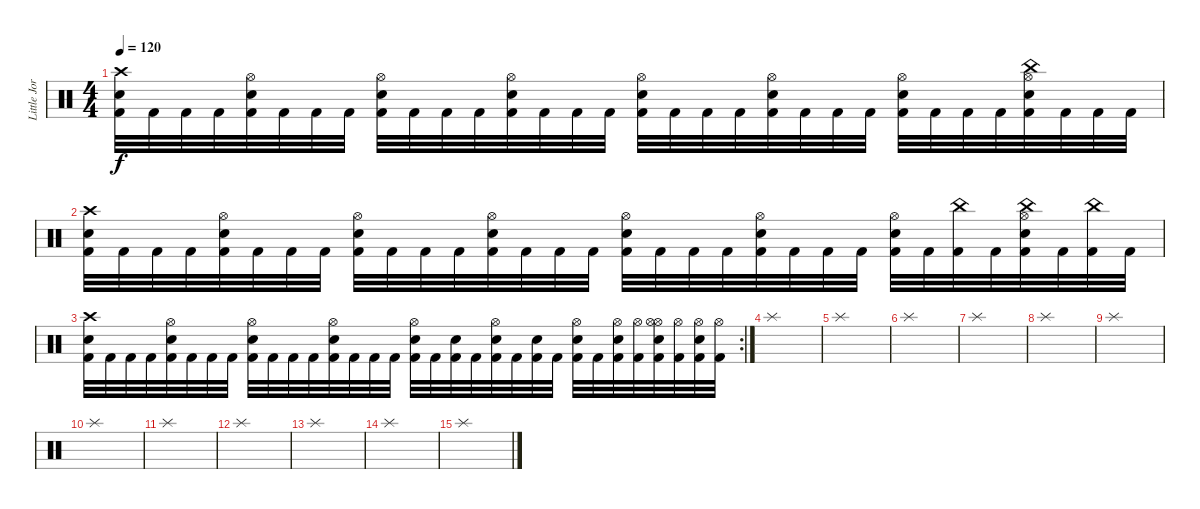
\track ("Little Jordison" "Little Jor") {instrument percussion}
\staff {score}
\articulation defaults
\ts (4 4)
\tempo 120
\clef neutral
\ks c
("Crash high (hit)" "Electric Snare (hit)" "Kick (hit) 2").32{dy f} "Kick (hit) 2".32 "Kick (hit) 2".32 "Kick (hit) 2".32 ("Hi-Hat (open)" "Electric Snare (hit)" "Kick (hit) 2").32 "Kick (hit) 2".32 "Kick (hit) 2".32 "Kick (hit) 2".32 ("Hi-Hat (open)" "Electric Snare (hit)" "Kick (hit) 2").32 "Kick (hit) 2".32 "Kick (hit) 2".32 "Kick (hit) 2".32 ("Hi-Hat (open)" "Electric Snare (hit)" "Kick (hit) 2").32 "Kick (hit) 2".32 "Kick (hit) 2".32 "Kick (hit) 2".32 ("Hi-Hat (open)" "Electric Snare (hit)" "Kick (hit) 2").32 "Kick (hit) 2".32 "Kick (hit) 2".32 "Kick (hit) 2".32 ("Hi-Hat (open)" "Electric Snare (hit)" "Kick (hit) 2").32 "Kick (hit) 2".32 "Kick (hit) 2".32 "Kick (hit) 2".32 ("Hi-Hat (open)" "Electric Snare (hit)" "Kick (hit) 2").32 "Kick (hit) 2".32 "Kick (hit) 2".32 "Kick (hit) 2".32 ("China (hit)" "Hi-Hat (open)" "Electric Snare (hit)" "Kick (hit) 2").32 "Kick (hit) 2".32 "Kick (hit) 2".32 "Kick (hit) 2".32 |
("Crash high (hit)" "Electric Snare (hit)" "Kick (hit) 2").32 "Kick (hit) 2".32 "Kick (hit) 2".32 "Kick (hit) 2".32 ("Hi-Hat (open)" "Electric Snare (hit)" "Kick (hit) 2").32 "Kick (hit) 2".32 "Kick (hit) 2".32 "Kick (hit) 2".32 ("Hi-Hat (open)" "Electric Snare (hit)" "Kick (hit) 2").32 "Kick (hit) 2".32 "Kick (hit) 2".32 "Kick (hit) 2".32 ("Hi-Hat (open)" "Electric Snare (hit)" "Kick (hit) 2").32 "Kick (hit) 2".32 "Kick (hit) 2".32 "Kick (hit) 2".32 ("Hi-Hat (open)" "Electric Snare (hit)" "Kick (hit) 2").32 "Kick (hit) 2".32 "Kick (hit) 2".32 "Kick (hit) 2".32 ("Hi-Hat (open)" "Electric Snare (hit)" "Kick (hit) 2").32 "Kick (hit) 2".32 "Kick (hit) 2".32 "Kick (hit) 2".32 ("Hi-Hat (open)" "Electric Snare (hit)" "Kick (hit) 2").32 "Kick (hit) 2".32 ("China (hit)" "Kick (hit) 2").32 "Kick (hit) 2".32 ("China (hit)" "Hi-Hat (open)" "Electric Snare (hit)" "Kick (hit) 2").32 "Kick (hit) 2".32 ("China (hit)" "Kick (hit) 2").32 "Kick (hit) 2".32 |
\rc 2
("Crash high (hit)" "Electric Snare (hit)" "Kick (hit) 2").32 "Kick (hit) 2".32 "Kick (hit) 2".32 "Kick (hit) 2".32 ("Hi-Hat (open)" "Electric Snare (hit)" "Kick (hit) 2").32 "Kick (hit) 2".32 "Kick (hit) 2".32 "Kick (hit) 2".32 ("Hi-Hat (open)" "Electric Snare (hit)" "Kick (hit) 2").32 "Kick (hit) 2".32 "Kick (hit) 2".32 "Kick (hit) 2".32 ("Hi-Hat (open)" "Electric Snare (hit)" "Kick (hit) 2").32 "Kick (hit) 2".32 "Kick (hit) 2".32 "Kick (hit) 2".32 ("Hi-Hat (open)" "Electric Snare (hit)" "Kick (hit) 2").32 "Kick (hit) 2".32 ("Electric Snare (hit)" "Kick (hit) 2").32 "Kick (hit) 2".32 ("Hi-Hat (open)" "Electric Snare (hit)" "Kick (hit) 2").32 "Kick (hit) 2".32 ("Electric Snare (hit)" "Kick (hit) 2").32 "Kick (hit) 2".32 ("Hi-Hat (open)" "Electric Snare (hit)" "Kick (hit) 2").32 "Kick (hit) 2".32 ("Hi-Hat (open)" "Electric Snare (hit)" "Kick (hit) 2").32 ("Hi-Hat (open)" "Kick (hit) 2").32 ("Hi-Hat (open)" "Hi-Hat (open)" "Electric Snare (hit)" "Kick (hit) 2").32 ("Hi-Hat (open)" "Kick (hit) 2").32 ("Hi-Hat (open)" "Electric Snare (hit)" "Kick (hit) 2").32 ("Hi-Hat (open)" "Kick (hit) 2").32 |
"Splash (hit)".1 |
"Splash (hit)".1 |
"Splash (hit)".1 |
"Splash (hit)".1 |
"Splash (hit)".1 |
"Splash (hit)".1 |
"Splash (hit)".1 |
"Splash (hit)".1 |
"Splash (hit)".1 |
"Splash (hit)".1 |
"Splash (hit)".1 |
"Splash (hit)".1
